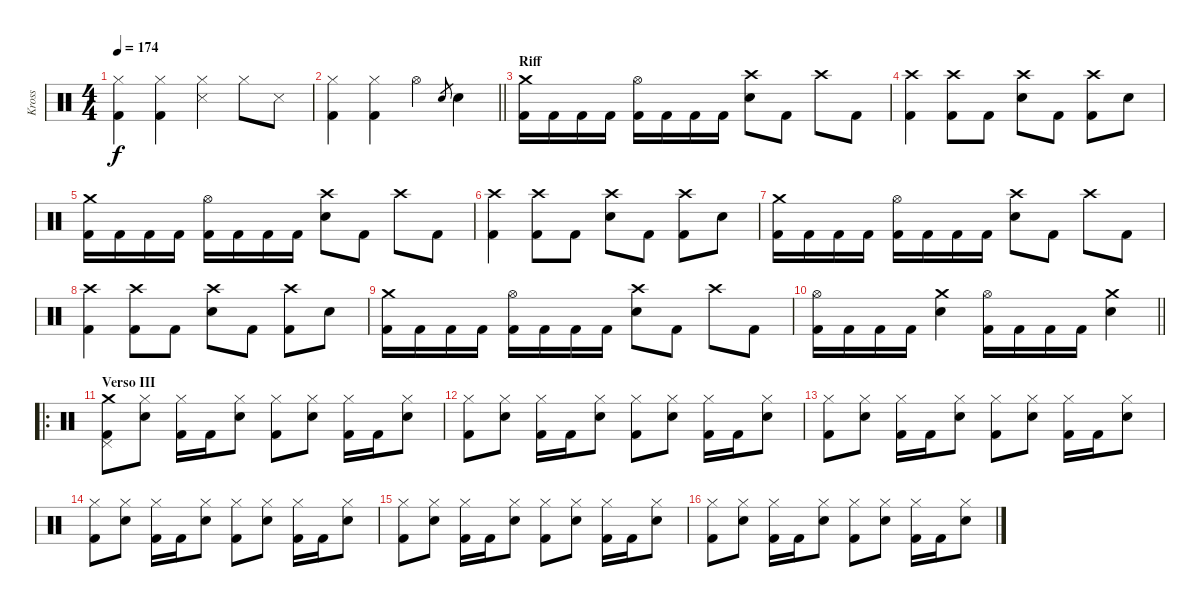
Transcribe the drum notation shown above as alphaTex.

\track ("Kross" "Kross") {instrument percussion}
\staff {score}
\articulation defaults
\ts (4 4)
\tempo 174
\clef neutral
\ks c
("Hi-Hat (closed)" "Kick (hit) 2").4{dy f} ("Hi-Hat (closed)" "Kick (hit) 2").4 ("Hi-Hat (closed)" "Snare (side stick) 3").4 "Hi-Hat (closed)".8 "Snare (side stick) 3".8 |
\barLineRight lightlight
("Hi-Hat (closed)" "Kick (hit) 2").4 ("Hi-Hat (closed)" "Kick (hit) 2").4 "Hi-Hat (open)".4 "Electric Snare (hit)".8{gr} "Electric Snare (hit)".4 |
\section ("" "Riff")
("Crash medium (hit)" "Kick (hit) 2").16 "Kick (hit) 2".16 "Kick (hit) 2".16 "Kick (hit) 2".16 ("Hi-Hat (open)" "Kick (hit) 2").16 "Kick (hit) 2".16 "Kick (hit) 2".16 "Kick (hit) 2".16 ("Crash high (hit)" "Electric Snare (hit)").8 "Kick (hit) 2".8 "Crash high (hit)".8 "Kick (hit) 2".8 |
("Crash high (hit)" "Kick (hit) 2").4 ("Crash high (hit)" "Kick (hit) 2").8 "Kick (hit) 2".8 ("Crash high (hit)" "Electric Snare (hit)").8 "Kick (hit) 2".8 ("Crash high (hit)" "Kick (hit) 2").8 "Electric Snare (hit)".8 |
("Crash medium (hit)" "Kick (hit) 2").16 "Kick (hit) 2".16 "Kick (hit) 2".16 "Kick (hit) 2".16 ("Hi-Hat (open)" "Kick (hit) 2").16 "Kick (hit) 2".16 "Kick (hit) 2".16 "Kick (hit) 2".16 ("Crash high (hit)" "Electric Snare (hit)").8 "Kick (hit) 2".8 "Crash high (hit)".8 "Kick (hit) 2".8 |
("Crash high (hit)" "Kick (hit) 2").4 ("Crash high (hit)" "Kick (hit) 2").8 "Kick (hit) 2".8 ("Crash high (hit)" "Electric Snare (hit)").8 "Kick (hit) 2".8 ("Crash high (hit)" "Kick (hit) 2").8 "Electric Snare (hit)".8 |
("Crash medium (hit)" "Kick (hit) 2").16 "Kick (hit) 2".16 "Kick (hit) 2".16 "Kick (hit) 2".16 ("Hi-Hat (open)" "Kick (hit) 2").16 "Kick (hit) 2".16 "Kick (hit) 2".16 "Kick (hit) 2".16 ("Crash high (hit)" "Electric Snare (hit)").8 "Kick (hit) 2".8 "Crash high (hit)".8 "Kick (hit) 2".8 |
("Crash high (hit)" "Kick (hit) 2").4 ("Crash high (hit)" "Kick (hit) 2").8 "Kick (hit) 2".8 ("Crash high (hit)" "Electric Snare (hit)").8 "Kick (hit) 2".8 ("Crash high (hit)" "Kick (hit) 2").8 "Electric Snare (hit)".8 |
("Crash medium (hit)" "Kick (hit) 2").16 "Kick (hit) 2".16 "Kick (hit) 2".16 "Kick (hit) 2".16 ("Hi-Hat (open)" "Kick (hit) 2").16 "Kick (hit) 2".16 "Kick (hit) 2".16 "Kick (hit) 2".16 ("Crash high (hit)" "Electric Snare (hit)").8 "Kick (hit) 2".8 "Crash high (hit)".8 "Kick (hit) 2".8 |
\barLineRight lightlight
("Hi-Hat (open)" "Kick (hit) 2").16 "Kick (hit) 2".16 "Kick (hit) 2".16 "Kick (hit) 2".16 ("Crash medium (hit)" "Electric Snare (hit)").4 ("Hi-Hat (open)" "Kick (hit) 2").16 "Kick (hit) 2".16 "Kick (hit) 2".16 "Kick (hit) 2".16 ("Crash medium (hit)" "Electric Snare (hit)").4 |
\ro
\section ("" "Verso III")
("Crash medium (hit)" "Pedal Hi-Hat (hit)" "Kick (hit) 2").8 ("Hi-Hat (closed)" "Electric Snare (hit)").8 ("Hi-Hat (closed)" "Kick (hit) 2").16 "Kick (hit) 2".16 ("Hi-Hat (closed)" "Electric Snare (hit)").8 ("Hi-Hat (closed)" "Kick (hit) 2").8 ("Hi-Hat (closed)" "Electric Snare (hit)").8 ("Hi-Hat (closed)" "Kick (hit) 2").16 "Kick (hit) 2".16 ("Hi-Hat (closed)" "Electric Snare (hit)").8 |
("Hi-Hat (closed)" "Kick (hit) 2").8 ("Hi-Hat (closed)" "Electric Snare (hit)").8 ("Hi-Hat (closed)" "Kick (hit) 2").16 "Kick (hit) 2".16 ("Hi-Hat (closed)" "Electric Snare (hit)").8 ("Hi-Hat (closed)" "Kick (hit) 2").8 ("Hi-Hat (closed)" "Electric Snare (hit)").8 ("Hi-Hat (closed)" "Kick (hit) 2").16 "Kick (hit) 2".16 ("Hi-Hat (closed)" "Electric Snare (hit)").8 |
("Hi-Hat (closed)" "Kick (hit) 2").8 ("Hi-Hat (closed)" "Electric Snare (hit)").8 ("Hi-Hat (closed)" "Kick (hit) 2").16 "Kick (hit) 2".16 ("Hi-Hat (closed)" "Electric Snare (hit)").8 ("Hi-Hat (closed)" "Kick (hit) 2").8 ("Hi-Hat (closed)" "Electric Snare (hit)").8 ("Hi-Hat (closed)" "Kick (hit) 2").16 "Kick (hit) 2".16 ("Hi-Hat (closed)" "Electric Snare (hit)").8 |
("Hi-Hat (closed)" "Kick (hit) 2").8 ("Hi-Hat (closed)" "Electric Snare (hit)").8 ("Hi-Hat (closed)" "Kick (hit) 2").16 "Kick (hit) 2".16 ("Hi-Hat (closed)" "Electric Snare (hit)").8 ("Hi-Hat (closed)" "Kick (hit) 2").8 ("Hi-Hat (closed)" "Electric Snare (hit)").8 ("Hi-Hat (closed)" "Kick (hit) 2").16 "Kick (hit) 2".16 ("Hi-Hat (closed)" "Electric Snare (hit)").8 |
("Hi-Hat (closed)" "Kick (hit) 2").8 ("Hi-Hat (closed)" "Electric Snare (hit)").8 ("Hi-Hat (closed)" "Kick (hit) 2").16 "Kick (hit) 2".16 ("Hi-Hat (closed)" "Electric Snare (hit)").8 ("Hi-Hat (closed)" "Kick (hit) 2").8 ("Hi-Hat (closed)" "Electric Snare (hit)").8 ("Hi-Hat (closed)" "Kick (hit) 2").16 "Kick (hit) 2".16 ("Hi-Hat (closed)" "Electric Snare (hit)").8 |
("Hi-Hat (closed)" "Kick (hit) 2").8 ("Hi-Hat (closed)" "Electric Snare (hit)").8 ("Hi-Hat (closed)" "Kick (hit) 2").16 "Kick (hit) 2".16 ("Hi-Hat (closed)" "Electric Snare (hit)").8 ("Hi-Hat (closed)" "Kick (hit) 2").8 ("Hi-Hat (closed)" "Electric Snare (hit)").8 ("Hi-Hat (closed)" "Kick (hit) 2").16 "Kick (hit) 2".16 ("Hi-Hat (closed)" "Electric Snare (hit)").8
